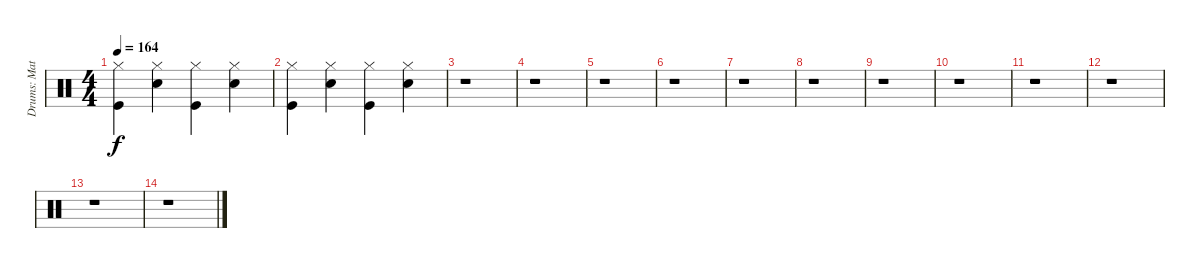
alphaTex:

\track ("Drums: Matt" "Drums: Mat") {instrument percussion}
\staff {score}
\articulation defaults
\ts (4 4)
\tempo 164
\clef neutral
\ks c
("Hi-Hat (closed)" "Kick (hit)").4{dy f} ("Hi-Hat (closed)" "Snare (hit) 2").4 ("Hi-Hat (closed)" "Kick (hit)").4 ("Hi-Hat (closed)" "Snare (hit) 2").4 |
("Hi-Hat (closed)" "Kick (hit)").4 ("Hi-Hat (closed)" "Snare (hit) 2").4 ("Hi-Hat (closed)" "Kick (hit)").4 ("Hi-Hat (closed)" "Snare (hit) 2").4 |
r.1 |
r.1 |
r.1 |
r.1 |
r.1 |
r.1 |
r.1 |
r.1 |
r.1 |
r.1 |
r.1 |
r.1
